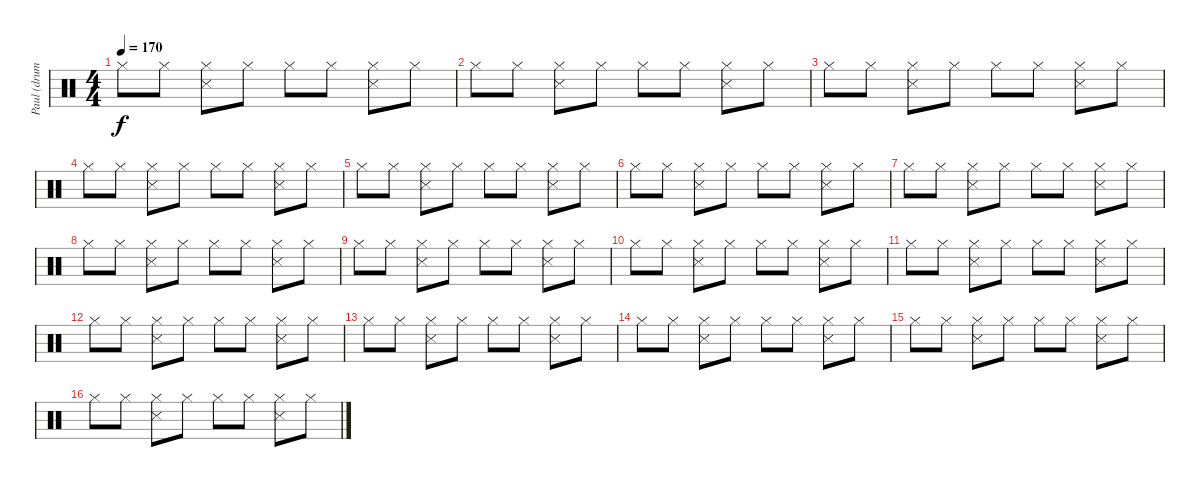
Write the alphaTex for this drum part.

\track ("Paul (drums)" "Paul (drum") {instrument percussion}
\staff {score}
\articulation defaults
\ts (4 4)
\tempo 170
\clef neutral
\ks c "Hi-Hat (closed)".8{dy f} "Hi-Hat (closed)".8
("Snare (side stick) 3" "Hi-Hat (closed)").8 "Hi-Hat (closed)".8 "Hi-Hat (closed)".8 "Hi-Hat (closed)".8 ("Snare (side stick) 3" "Hi-Hat (closed)").8 "Hi-Hat (closed)".8 |
"Hi-Hat (closed)".8 "Hi-Hat (closed)".8 ("Snare (side stick) 3" "Hi-Hat (closed)").8 "Hi-Hat (closed)".8 "Hi-Hat (closed)".8 "Hi-Hat (closed)".8 ("Snare (side stick) 3" "Hi-Hat (closed)").8 "Hi-Hat (closed)".8 |
"Hi-Hat (closed)".8 "Hi-Hat (closed)".8 ("Snare (side stick) 3" "Hi-Hat (closed)").8 "Hi-Hat (closed)".8 "Hi-Hat (closed)".8 "Hi-Hat (closed)".8 ("Snare (side stick) 3" "Hi-Hat (closed)").8 "Hi-Hat (closed)".8 |
"Hi-Hat (closed)".8 "Hi-Hat (closed)".8 ("Snare (side stick) 3" "Hi-Hat (closed)").8 "Hi-Hat (closed)".8 "Hi-Hat (closed)".8 "Hi-Hat (closed)".8 ("Snare (side stick) 3" "Hi-Hat (closed)").8 "Hi-Hat (closed)".8 |
"Hi-Hat (closed)".8 "Hi-Hat (closed)".8 ("Snare (side stick) 3" "Hi-Hat (closed)").8 "Hi-Hat (closed)".8 "Hi-Hat (closed)".8 "Hi-Hat (closed)".8 ("Snare (side stick) 3" "Hi-Hat (closed)").8 "Hi-Hat (closed)".8 |
"Hi-Hat (closed)".8 "Hi-Hat (closed)".8 ("Snare (side stick) 3" "Hi-Hat (closed)").8 "Hi-Hat (closed)".8 "Hi-Hat (closed)".8 "Hi-Hat (closed)".8 ("Snare (side stick) 3" "Hi-Hat (closed)").8 "Hi-Hat (closed)".8 |
"Hi-Hat (closed)".8 "Hi-Hat (closed)".8 ("Snare (side stick) 3" "Hi-Hat (closed)").8 "Hi-Hat (closed)".8 "Hi-Hat (closed)".8 "Hi-Hat (closed)".8 ("Snare (side stick) 3" "Hi-Hat (closed)").8 "Hi-Hat (closed)".8 |
"Hi-Hat (closed)".8 "Hi-Hat (closed)".8 ("Snare (side stick) 3" "Hi-Hat (closed)").8 "Hi-Hat (closed)".8 "Hi-Hat (closed)".8 "Hi-Hat (closed)".8 ("Snare (side stick) 3" "Hi-Hat (closed)").8 "Hi-Hat (closed)".8 |
"Hi-Hat (closed)".8 "Hi-Hat (closed)".8 ("Snare (side stick) 3" "Hi-Hat (closed)").8 "Hi-Hat (closed)".8 "Hi-Hat (closed)".8 "Hi-Hat (closed)".8 ("Snare (side stick) 3" "Hi-Hat (closed)").8 "Hi-Hat (closed)".8 |
"Hi-Hat (closed)".8 "Hi-Hat (closed)".8 ("Snare (side stick) 3" "Hi-Hat (closed)").8 "Hi-Hat (closed)".8 "Hi-Hat (closed)".8 "Hi-Hat (closed)".8 ("Snare (side stick) 3" "Hi-Hat (closed)").8 "Hi-Hat (closed)".8 |
"Hi-Hat (closed)".8 "Hi-Hat (closed)".8 ("Snare (side stick) 3" "Hi-Hat (closed)").8 "Hi-Hat (closed)".8 "Hi-Hat (closed)".8 "Hi-Hat (closed)".8 ("Snare (side stick) 3" "Hi-Hat (closed)").8 "Hi-Hat (closed)".8 |
"Hi-Hat (closed)".8 "Hi-Hat (closed)".8 ("Snare (side stick) 3" "Hi-Hat (closed)").8 "Hi-Hat (closed)".8 "Hi-Hat (closed)".8 "Hi-Hat (closed)".8 ("Snare (side stick) 3" "Hi-Hat (closed)").8 "Hi-Hat (closed)".8 |
"Hi-Hat (closed)".8 "Hi-Hat (closed)".8 ("Snare (side stick) 3" "Hi-Hat (closed)").8 "Hi-Hat (closed)".8 "Hi-Hat (closed)".8 "Hi-Hat (closed)".8 ("Snare (side stick) 3" "Hi-Hat (closed)").8 "Hi-Hat (closed)".8 |
"Hi-Hat (closed)".8 "Hi-Hat (closed)".8 ("Snare (side stick) 3" "Hi-Hat (closed)").8 "Hi-Hat (closed)".8 "Hi-Hat (closed)".8 "Hi-Hat (closed)".8 ("Snare (side stick) 3" "Hi-Hat (closed)").8 "Hi-Hat (closed)".8 |
"Hi-Hat (closed)".8 "Hi-Hat (closed)".8 ("Snare (side stick) 3" "Hi-Hat (closed)").8 "Hi-Hat (closed)".8 "Hi-Hat (closed)".8 "Hi-Hat (closed)".8 ("Snare (side stick) 3" "Hi-Hat (closed)").8 "Hi-Hat (closed)".8 |
"Hi-Hat (closed)".8 "Hi-Hat (closed)".8 ("Snare (side stick) 3" "Hi-Hat (closed)").8 "Hi-Hat (closed)".8 "Hi-Hat (closed)".8 "Hi-Hat (closed)".8 ("Snare (side stick) 3" "Hi-Hat (closed)").8 "Hi-Hat (closed)".8
